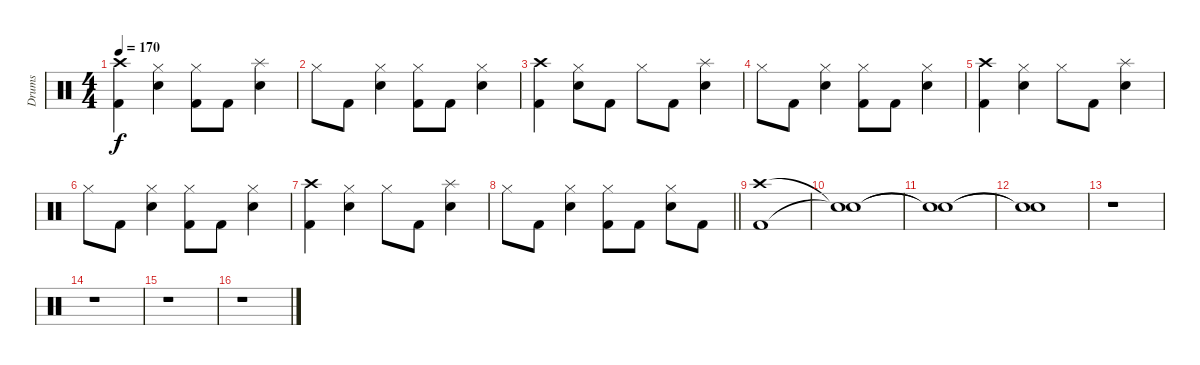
\track ("Drums" "Drums") {instrument percussion}
\staff {score}
\articulation defaults
\ts (4 4)
\tempo 170
\clef neutral
\ks c
("Kick (hit) 2" "Crash high (hit)").4{dy f} ("Hi-Hat (closed)" "Electric Snare (hit)").4 ("Kick (hit) 2" "Hi-Hat (closed)").8 "Kick (hit) 2".8 ("Splash (hit)" "Electric Snare (hit)").4 |
"Hi-Hat (closed)".8 "Kick (hit) 2".8 ("Hi-Hat (closed)" "Electric Snare (hit)").4 ("Kick (hit) 2" "Hi-Hat (closed)").8 "Kick (hit) 2".8 ("Hi-Hat (closed)" "Electric Snare (hit)").4 |
("Kick (hit) 2" "Crash high (hit)").4 ("Hi-Hat (closed)" "Electric Snare (hit)").8 "Kick (hit) 2".8 "Hi-Hat (closed)".8 "Kick (hit) 2".8 ("Splash (hit)" "Electric Snare (hit)").4 |
"Hi-Hat (closed)".8 "Kick (hit) 2".8 ("Hi-Hat (closed)" "Electric Snare (hit)").4 ("Kick (hit) 2" "Hi-Hat (closed)").8 "Kick (hit) 2".8 ("Hi-Hat (closed)" "Electric Snare (hit)").4 |
("Kick (hit) 2" "Crash high (hit)").4 ("Hi-Hat (closed)" "Electric Snare (hit)").4 "Hi-Hat (closed)".8 "Kick (hit) 2".8 ("Splash (hit)" "Electric Snare (hit)").4 |
"Hi-Hat (closed)".8 "Kick (hit) 2".8 ("Hi-Hat (closed)" "Electric Snare (hit)").4 ("Kick (hit) 2" "Hi-Hat (closed)").8 "Kick (hit) 2".8 ("Hi-Hat (closed)" "Electric Snare (hit)").4 |
("Kick (hit) 2" "Crash high (hit)").4 ("Hi-Hat (closed)" "Electric Snare (hit)").4 "Hi-Hat (closed)".8 "Kick (hit) 2".8 ("Splash (hit)" "Electric Snare (hit)").4 |
\barLineRight lightlight "Hi-Hat (closed)".8 "Kick (hit) 2".8
("Hi-Hat (closed)" "Electric Snare (hit)").4 ("Kick (hit) 2" "Hi-Hat (closed)").8 "Kick (hit) 2".8 ("Hi-Hat (closed)" "Electric Snare (hit)").8 "Kick (hit) 2".8 |
("Kick (hit) 2" "Crash high (hit)").1 |
("Snare (hit)"{t} "Snare (hit)"{t}).1 |
("Snare (hit)"{t} "Snare (hit)"{t}).1 |
("Snare (hit)"{t} "Snare (hit)"{t}).1 |
r.1 |
r.1 |
r.1 |
r.1
